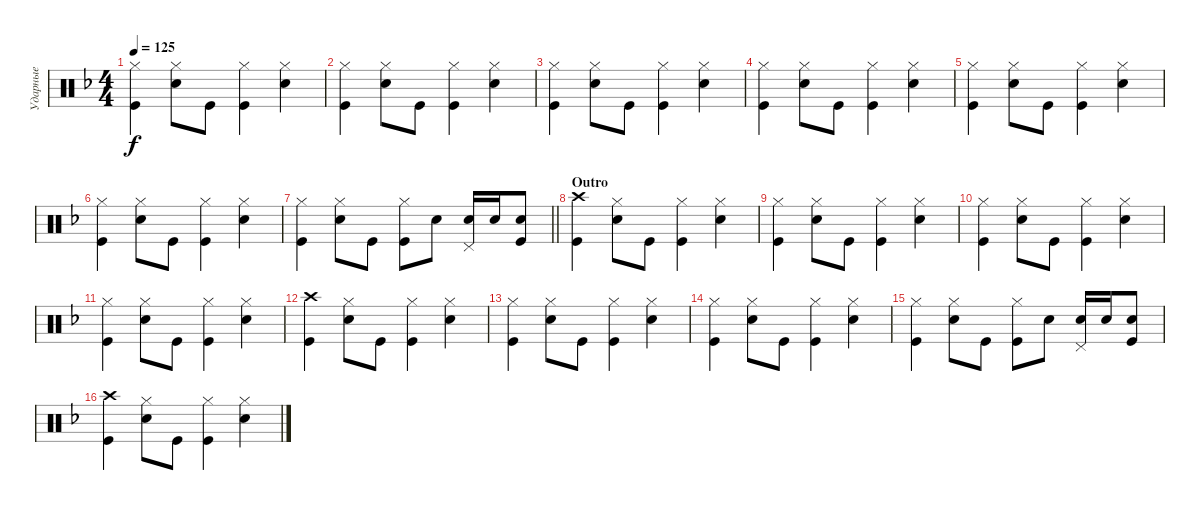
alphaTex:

\track ("Ударные" "Ударные") {instrument percussion}
\staff {score}
\articulation defaults
\ts (4 4)
\tempo 125
\clef neutral
\ks dminor
("Hi-Hat (closed)" "Kick (hit)").4{dy f} ("Hi-Hat (closed)" "Snare (hit) 2").8 "Kick (hit)".8 ("Hi-Hat (closed)" "Kick (hit)").4 ("Hi-Hat (closed)" "Snare (hit) 2").4 |
("Hi-Hat (closed)" "Kick (hit)").4 ("Hi-Hat (closed)" "Snare (hit) 2").8 "Kick (hit)".8 ("Hi-Hat (closed)" "Kick (hit)").4 ("Hi-Hat (closed)" "Snare (hit) 2").4 |
("Hi-Hat (closed)" "Kick (hit)").4 ("Hi-Hat (closed)" "Snare (hit) 2").8 "Kick (hit)".8 ("Hi-Hat (closed)" "Kick (hit)").4 ("Hi-Hat (closed)" "Snare (hit) 2").4 |
("Hi-Hat (closed)" "Kick (hit)").4 ("Hi-Hat (closed)" "Snare (hit) 2").8 "Kick (hit)".8 ("Hi-Hat (closed)" "Kick (hit)").4 ("Hi-Hat (closed)" "Snare (hit) 2").4 |
("Hi-Hat (closed)" "Kick (hit)").4 ("Hi-Hat (closed)" "Snare (hit) 2").8 "Kick (hit)".8 ("Hi-Hat (closed)" "Kick (hit)").4 ("Hi-Hat (closed)" "Snare (hit) 2").4 |
("Hi-Hat (closed)" "Kick (hit)").4 ("Hi-Hat (closed)" "Snare (hit) 2").8 "Kick (hit)".8 ("Hi-Hat (closed)" "Kick (hit)").4 ("Hi-Hat (closed)" "Snare (hit) 2").4 |
\barLineRight lightlight
("Hi-Hat (closed)" "Kick (hit)").4 ("Hi-Hat (closed)" "Snare (hit) 2").8 "Kick (hit)".8 ("Hi-Hat (closed)" "Kick (hit)").8 "Snare (hit) 2".8 ("Snare (hit) 2" "Pedal Hi-Hat (hit)").16 "Snare (hit) 2".16 ("Snare (hit) 2" "Kick (hit)").8 |
\section ("" "Outro")
("Kick (hit)" "Crash high (hit)").4 ("Hi-Hat (closed)" "Snare (hit) 2").8 "Kick (hit)".8 ("Hi-Hat (closed)" "Kick (hit)").4 ("Hi-Hat (closed)" "Snare (hit) 2").4 |
("Hi-Hat (closed)" "Kick (hit)").4 ("Hi-Hat (closed)" "Snare (hit) 2").8 "Kick (hit)".8 ("Hi-Hat (closed)" "Kick (hit)").4 ("Hi-Hat (closed)" "Snare (hit) 2").4 |
("Hi-Hat (closed)" "Kick (hit)").4 ("Hi-Hat (closed)" "Snare (hit) 2").8 "Kick (hit)".8 ("Hi-Hat (closed)" "Kick (hit)").4 ("Hi-Hat (closed)" "Snare (hit) 2").4 |
("Hi-Hat (closed)" "Kick (hit)").4 ("Hi-Hat (closed)" "Snare (hit) 2").8 "Kick (hit)".8 ("Hi-Hat (closed)" "Kick (hit)").4 ("Hi-Hat (closed)" "Snare (hit) 2").4 |
("Kick (hit)" "Crash high (hit)").4 ("Hi-Hat (closed)" "Snare (hit) 2").8 "Kick (hit)".8 ("Hi-Hat (closed)" "Kick (hit)").4 ("Hi-Hat (closed)" "Snare (hit) 2").4 |
("Hi-Hat (closed)" "Kick (hit)").4 ("Hi-Hat (closed)" "Snare (hit) 2").8 "Kick (hit)".8 ("Hi-Hat (closed)" "Kick (hit)").4 ("Hi-Hat (closed)" "Snare (hit) 2").4 |
("Hi-Hat (closed)" "Kick (hit)").4 ("Hi-Hat (closed)" "Snare (hit) 2").8 "Kick (hit)".8 ("Hi-Hat (closed)" "Kick (hit)").4 ("Hi-Hat (closed)" "Snare (hit) 2").4 |
("Hi-Hat (closed)" "Kick (hit)").4 ("Hi-Hat (closed)" "Snare (hit) 2").8 "Kick (hit)".8 ("Hi-Hat (closed)" "Kick (hit)").8 "Snare (hit) 2".8 ("Snare (hit) 2" "Pedal Hi-Hat (hit)").16 "Snare (hit) 2".16 ("Snare (hit) 2" "Kick (hit)").8 |
("Kick (hit)" "Crash high (hit)").4 ("Hi-Hat (closed)" "Snare (hit) 2").8 "Kick (hit)".8 ("Hi-Hat (closed)" "Kick (hit)").4 ("Hi-Hat (closed)" "Snare (hit) 2").4
